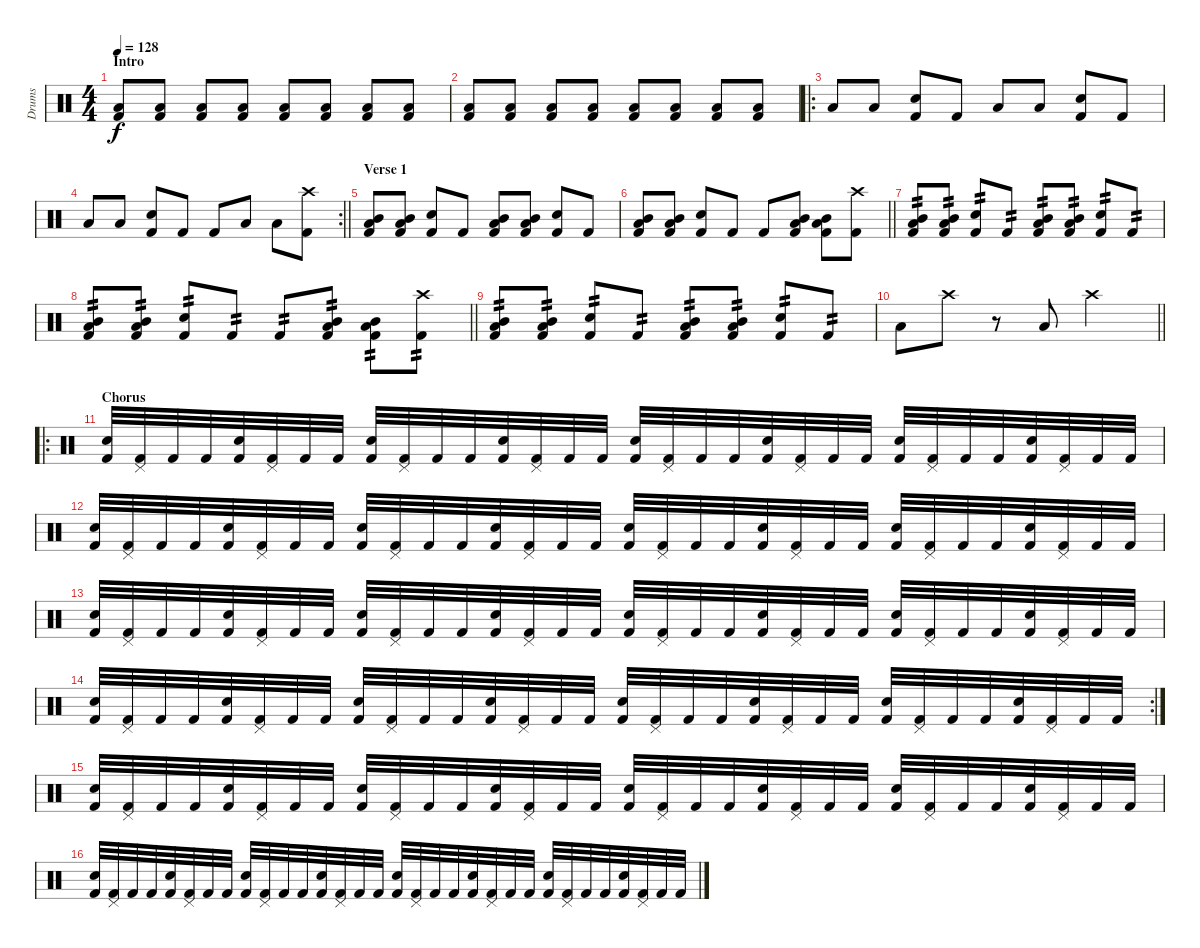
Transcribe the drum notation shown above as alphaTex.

\track ("Drums" "Drums") {instrument percussion}
\staff {score}
\articulation defaults
\ts (4 4)
\section ("" "Intro")
\tempo 128
\clef neutral
\ks c
("Kick (hit) 2" "Low Tom (hit)").8{dy f} ("Kick (hit) 2" "Low Tom (hit)").8 ("Kick (hit) 2" "Low Tom (hit)").8 ("Kick (hit) 2" "Low Tom (hit)").8 ("Kick (hit) 2" "Low Tom (hit)").8 ("Kick (hit) 2" "Low Tom (hit)").8 ("Kick (hit) 2" "Low Tom (hit)").8 ("Kick (hit) 2" "Low Tom (hit)").8 |
("Kick (hit) 2" "Low Tom (hit)").8 ("Kick (hit) 2" "Low Tom (hit)").8 ("Kick (hit) 2" "Low Tom (hit)").8 ("Kick (hit) 2" "Low Tom (hit)").8 ("Kick (hit) 2" "Low Tom (hit)").8 ("Kick (hit) 2" "Low Tom (hit)").8 ("Kick (hit) 2" "Low Tom (hit)").8 ("Kick (hit) 2" "Low Tom (hit)").8 |
\ro "Low Tom (hit)".8 "Low Tom (hit)".8
("Kick (hit) 2" "Snare (hit) 2").8 "Kick (hit) 2".8 "Low Tom (hit)".8 "Low Tom (hit)".8 ("Kick (hit) 2" "Snare (hit) 2").8 "Kick (hit) 2".8 |
\rc 2
\barLineRight lightlight "Low Tom (hit)".8 "Low Tom (hit)".8
("Kick (hit) 2" "Snare (hit) 2").8 "Kick (hit) 2".8 "Kick (hit) 2".8 "Low Tom (hit)".8 "Low Tom (hit)".8 ("Kick (hit) 2" "Crash high (hit)").8 |
\section ("" "Verse 1")
("Kick (hit) 2" "Low Tom (hit)" "Mid Tom (hit)").8 ("Kick (hit) 2" "Low Tom (hit)" "Mid Tom (hit)").8 ("Kick (hit) 2" "Snare (hit) 2").8 "Kick (hit) 2".8 ("Kick (hit) 2" "Low Tom (hit)" "Mid Tom (hit)").8 ("Kick (hit) 2" "Low Tom (hit)" "Mid Tom (hit)").8 ("Kick (hit) 2" "Snare (hit) 2").8 "Kick (hit) 2".8 |
\barLineRight lightlight
("Kick (hit) 2" "Low Tom (hit)" "Mid Tom (hit)").8 ("Kick (hit) 2" "Low Tom (hit)" "Mid Tom (hit)").8 ("Kick (hit) 2" "Snare (hit) 2").8 "Kick (hit) 2".8 "Kick (hit) 2".8 ("Kick (hit) 2" "Low Tom (hit)" "Mid Tom (hit)").8 ("Kick (hit) 2" "Low Tom (hit)" "Mid Tom (hit)").8 ("Kick (hit) 2" "Crash high (hit)").8 |
("Kick (hit) 2" "Low Tom (hit)" "Mid Tom (hit)").8{tp 2} ("Kick (hit) 2" "Low Tom (hit)" "Mid Tom (hit)").8{tp 2} ("Kick (hit) 2" "Snare (hit) 2").8{tp 2} "Kick (hit) 2".8{tp 2} ("Kick (hit) 2" "Low Tom (hit)" "Mid Tom (hit)").8{tp 2} ("Kick (hit) 2" "Low Tom (hit)" "Mid Tom (hit)").8{tp 2} ("Kick (hit) 2" "Snare (hit) 2").8{tp 2} "Kick (hit) 2".8{tp 2} |
\barLineRight lightlight
("Kick (hit) 2" "Low Tom (hit)" "Mid Tom (hit)").8{tp 2} ("Kick (hit) 2" "Low Tom (hit)" "Mid Tom (hit)").8{tp 2} ("Kick (hit) 2" "Snare (hit) 2").8{tp 2} "Kick (hit) 2".8{tp 2} "Kick (hit) 2".8{tp 2} ("Kick (hit) 2" "Low Tom (hit)" "Mid Tom (hit)").8{tp 2} ("Kick (hit) 2" "Low Tom (hit)" "Mid Tom (hit)").8{tp 2} ("Kick (hit) 2" "Crash high (hit)").8{tp 2} |
("Kick (hit) 2" "Low Tom (hit)" "Mid Tom (hit)").8{tp 2} ("Kick (hit) 2" "Low Tom (hit)" "Mid Tom (hit)").8{tp 2} ("Kick (hit) 2" "Snare (hit) 2").8{tp 2} "Kick (hit) 2".8{tp 2} ("Kick (hit) 2" "Low Tom (hit)" "Mid Tom (hit)").8{tp 2} ("Kick (hit) 2" "Low Tom (hit)" "Mid Tom (hit)").8{tp 2} ("Kick (hit) 2" "Snare (hit) 2").8{tp 2} "Kick (hit) 2".8{tp 2} |
\barLineRight lightlight "Low Tom (hit)".8 "Crash high (hit)".8
r.8 "Low Tom (hit)".8 "Crash high (hit)".2 |
\ro
\section ("" "Chorus")
("Kick (hit) 2" "Electric Snare (hit)").32 ("Kick (hit) 2" "Pedal Hi-Hat (hit)").32 "Kick (hit) 2".32 "Kick (hit) 2".32 ("Kick (hit) 2" "Electric Snare (hit)").32 ("Kick (hit) 2" "Pedal Hi-Hat (hit)").32 "Kick (hit) 2".32 "Kick (hit) 2".32 ("Kick (hit) 2" "Electric Snare (hit)").32 ("Kick (hit) 2" "Pedal Hi-Hat (hit)").32 "Kick (hit) 2".32 "Kick (hit) 2".32 ("Kick (hit) 2" "Electric Snare (hit)").32 ("Kick (hit) 2" "Pedal Hi-Hat (hit)").32 "Kick (hit) 2".32 "Kick (hit) 2".32 ("Kick (hit) 2" "Electric Snare (hit)").32 ("Kick (hit) 2" "Pedal Hi-Hat (hit)").32 "Kick (hit) 2".32 "Kick (hit) 2".32 ("Kick (hit) 2" "Electric Snare (hit)").32 ("Kick (hit) 2" "Pedal Hi-Hat (hit)").32 "Kick (hit) 2".32 "Kick (hit) 2".32 ("Kick (hit) 2" "Electric Snare (hit)").32 ("Kick (hit) 2" "Pedal Hi-Hat (hit)").32 "Kick (hit) 2".32 "Kick (hit) 2".32 ("Kick (hit) 2" "Electric Snare (hit)").32 ("Kick (hit) 2" "Pedal Hi-Hat (hit)").32 "Kick (hit) 2".32 "Kick (hit) 2".32 |
("Kick (hit) 2" "Electric Snare (hit)").32 ("Kick (hit) 2" "Pedal Hi-Hat (hit)").32 "Kick (hit) 2".32 "Kick (hit) 2".32 ("Kick (hit) 2" "Electric Snare (hit)").32 ("Kick (hit) 2" "Pedal Hi-Hat (hit)").32 "Kick (hit) 2".32 "Kick (hit) 2".32 ("Kick (hit) 2" "Electric Snare (hit)").32 ("Kick (hit) 2" "Pedal Hi-Hat (hit)").32 "Kick (hit) 2".32 "Kick (hit) 2".32 ("Kick (hit) 2" "Electric Snare (hit)").32 ("Kick (hit) 2" "Pedal Hi-Hat (hit)").32 "Kick (hit) 2".32 "Kick (hit) 2".32 ("Kick (hit) 2" "Electric Snare (hit)").32 ("Kick (hit) 2" "Pedal Hi-Hat (hit)").32 "Kick (hit) 2".32 "Kick (hit) 2".32 ("Kick (hit) 2" "Electric Snare (hit)").32 ("Kick (hit) 2" "Pedal Hi-Hat (hit)").32 "Kick (hit) 2".32 "Kick (hit) 2".32 ("Kick (hit) 2" "Electric Snare (hit)").32 ("Kick (hit) 2" "Pedal Hi-Hat (hit)").32 "Kick (hit) 2".32 "Kick (hit) 2".32 ("Kick (hit) 2" "Electric Snare (hit)").32 ("Kick (hit) 2" "Pedal Hi-Hat (hit)").32 "Kick (hit) 2".32 "Kick (hit) 2".32 |
("Kick (hit) 2" "Electric Snare (hit)").32 ("Kick (hit) 2" "Pedal Hi-Hat (hit)").32 "Kick (hit) 2".32 "Kick (hit) 2".32 ("Kick (hit) 2" "Electric Snare (hit)").32 ("Kick (hit) 2" "Pedal Hi-Hat (hit)").32 "Kick (hit) 2".32 "Kick (hit) 2".32 ("Kick (hit) 2" "Electric Snare (hit)").32 ("Kick (hit) 2" "Pedal Hi-Hat (hit)").32 "Kick (hit) 2".32 "Kick (hit) 2".32 ("Kick (hit) 2" "Electric Snare (hit)").32 ("Kick (hit) 2" "Pedal Hi-Hat (hit)").32 "Kick (hit) 2".32 "Kick (hit) 2".32 ("Kick (hit) 2" "Electric Snare (hit)").32 ("Kick (hit) 2" "Pedal Hi-Hat (hit)").32 "Kick (hit) 2".32 "Kick (hit) 2".32 ("Kick (hit) 2" "Electric Snare (hit)").32 ("Kick (hit) 2" "Pedal Hi-Hat (hit)").32 "Kick (hit) 2".32 "Kick (hit) 2".32 ("Kick (hit) 2" "Electric Snare (hit)").32 ("Kick (hit) 2" "Pedal Hi-Hat (hit)").32 "Kick (hit) 2".32 "Kick (hit) 2".32 ("Kick (hit) 2" "Electric Snare (hit)").32 ("Kick (hit) 2" "Pedal Hi-Hat (hit)").32 "Kick (hit) 2".32 "Kick (hit) 2".32 |
\rc 2
("Kick (hit) 2" "Electric Snare (hit)").32 ("Kick (hit) 2" "Pedal Hi-Hat (hit)").32 "Kick (hit) 2".32 "Kick (hit) 2".32 ("Kick (hit) 2" "Electric Snare (hit)").32 ("Kick (hit) 2" "Pedal Hi-Hat (hit)").32 "Kick (hit) 2".32 "Kick (hit) 2".32 ("Kick (hit) 2" "Electric Snare (hit)").32 ("Kick (hit) 2" "Pedal Hi-Hat (hit)").32 "Kick (hit) 2".32 "Kick (hit) 2".32 ("Kick (hit) 2" "Electric Snare (hit)").32 ("Kick (hit) 2" "Pedal Hi-Hat (hit)").32 "Kick (hit) 2".32 "Kick (hit) 2".32 ("Kick (hit) 2" "Electric Snare (hit)").32 ("Kick (hit) 2" "Pedal Hi-Hat (hit)").32 "Kick (hit) 2".32 "Kick (hit) 2".32 ("Kick (hit) 2" "Electric Snare (hit)").32 ("Kick (hit) 2" "Pedal Hi-Hat (hit)").32 "Kick (hit) 2".32 "Kick (hit) 2".32 ("Kick (hit) 2" "Electric Snare (hit)").32 ("Kick (hit) 2" "Pedal Hi-Hat (hit)").32 "Kick (hit) 2".32 "Kick (hit) 2".32 ("Kick (hit) 2" "Electric Snare (hit)").32 ("Kick (hit) 2" "Pedal Hi-Hat (hit)").32 "Kick (hit) 2".32 "Kick (hit) 2".32 |
("Kick (hit) 2" "Electric Snare (hit)").32 ("Kick (hit) 2" "Pedal Hi-Hat (hit)").32 "Kick (hit) 2".32 "Kick (hit) 2".32 ("Kick (hit) 2" "Electric Snare (hit)").32 ("Kick (hit) 2" "Pedal Hi-Hat (hit)").32 "Kick (hit) 2".32 "Kick (hit) 2".32 ("Kick (hit) 2" "Electric Snare (hit)").32 ("Kick (hit) 2" "Pedal Hi-Hat (hit)").32 "Kick (hit) 2".32 "Kick (hit) 2".32 ("Kick (hit) 2" "Electric Snare (hit)").32 ("Kick (hit) 2" "Pedal Hi-Hat (hit)").32 "Kick (hit) 2".32 "Kick (hit) 2".32 ("Kick (hit) 2" "Electric Snare (hit)").32 ("Kick (hit) 2" "Pedal Hi-Hat (hit)").32 "Kick (hit) 2".32 "Kick (hit) 2".32 ("Kick (hit) 2" "Electric Snare (hit)").32 ("Kick (hit) 2" "Pedal Hi-Hat (hit)").32 "Kick (hit) 2".32 "Kick (hit) 2".32 ("Kick (hit) 2" "Electric Snare (hit)").32 ("Kick (hit) 2" "Pedal Hi-Hat (hit)").32 "Kick (hit) 2".32 "Kick (hit) 2".32 ("Kick (hit) 2" "Electric Snare (hit)").32 ("Kick (hit) 2" "Pedal Hi-Hat (hit)").32 "Kick (hit) 2".32 "Kick (hit) 2".32 |
("Kick (hit) 2" "Electric Snare (hit)").32 ("Kick (hit) 2" "Pedal Hi-Hat (hit)").32 "Kick (hit) 2".32 "Kick (hit) 2".32 ("Kick (hit) 2" "Electric Snare (hit)").32 ("Kick (hit) 2" "Pedal Hi-Hat (hit)").32 "Kick (hit) 2".32 "Kick (hit) 2".32 ("Kick (hit) 2" "Electric Snare (hit)").32 ("Kick (hit) 2" "Pedal Hi-Hat (hit)").32 "Kick (hit) 2".32 "Kick (hit) 2".32 ("Kick (hit) 2" "Electric Snare (hit)").32 ("Kick (hit) 2" "Pedal Hi-Hat (hit)").32 "Kick (hit) 2".32 "Kick (hit) 2".32 ("Kick (hit) 2" "Electric Snare (hit)").32 ("Kick (hit) 2" "Pedal Hi-Hat (hit)").32 "Kick (hit) 2".32 "Kick (hit) 2".32 ("Kick (hit) 2" "Electric Snare (hit)").32 ("Kick (hit) 2" "Pedal Hi-Hat (hit)").32 "Kick (hit) 2".32 "Kick (hit) 2".32 ("Kick (hit) 2" "Electric Snare (hit)").32 ("Kick (hit) 2" "Pedal Hi-Hat (hit)").32 "Kick (hit) 2".32 "Kick (hit) 2".32 ("Kick (hit) 2" "Electric Snare (hit)").32 ("Kick (hit) 2" "Pedal Hi-Hat (hit)").32 "Kick (hit) 2".32 "Kick (hit) 2".32
